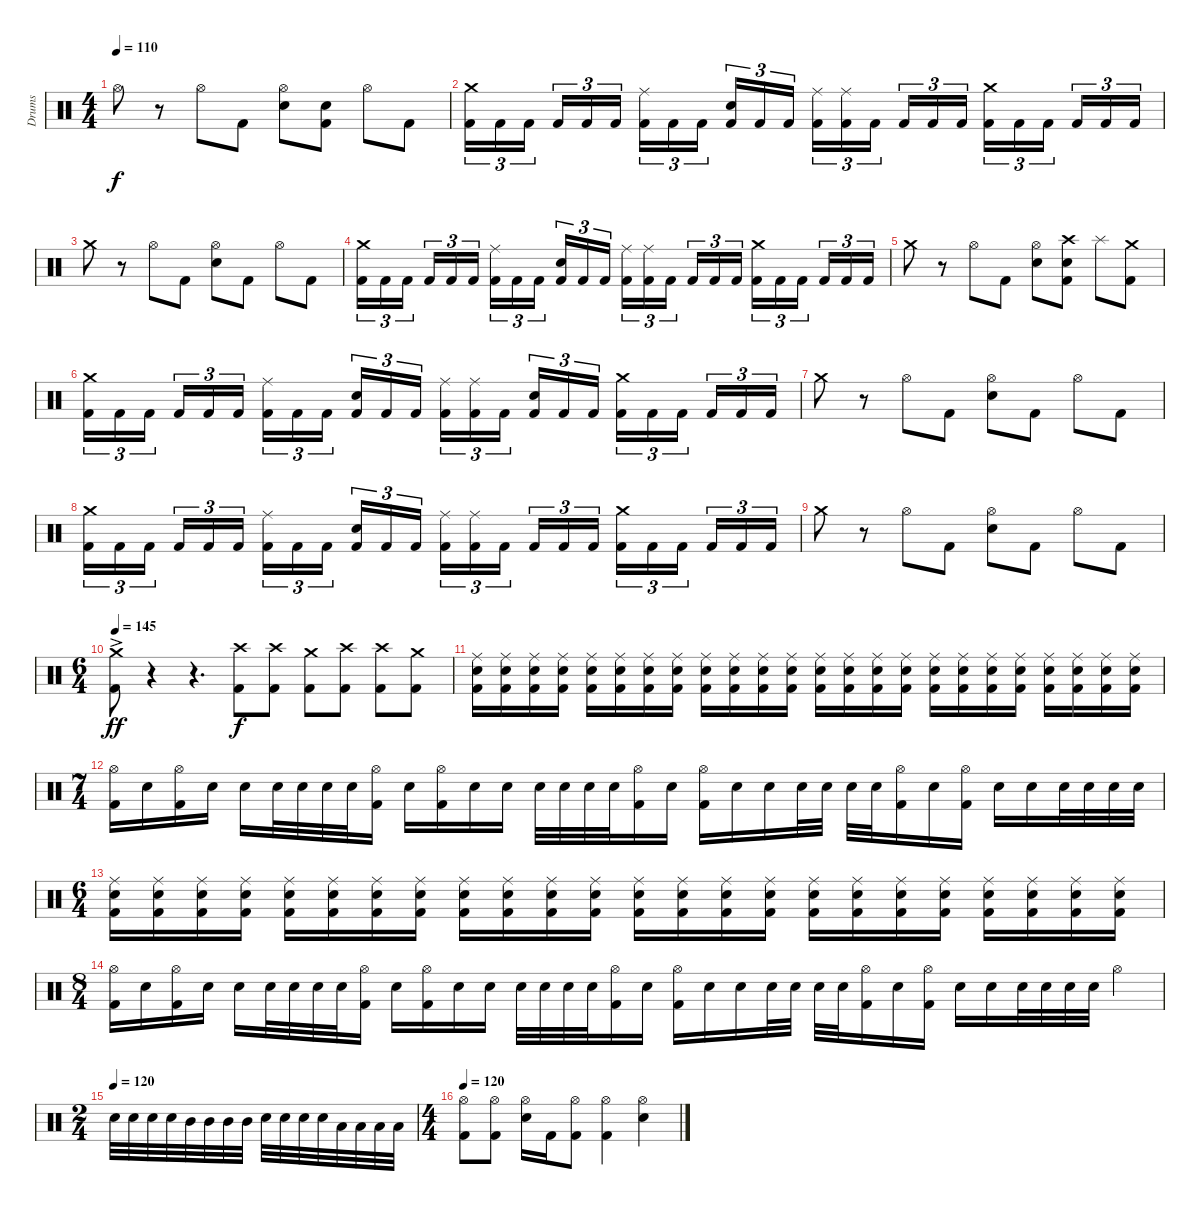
\track ("Drums" "Drums") {instrument percussion}
\staff {score}
\articulation defaults
\ts (4 4)
\tempo 110
\clef neutral
\ks c "Hi-Hat (open)".8{dy f}
r.8 "Hi-Hat (open)".8 "Kick (hit) 2".8 ("Hi-Hat (open)" "Electric Snare (hit)").8 ("Electric Snare (hit)" "Kick (hit) 2").8 "Hi-Hat (open)".8 "Kick (hit) 2".8 |
("Crash medium (hit)" "Kick (hit) 2").16{tu (3 2)} "Kick (hit) 2".16{tu (3 2)} "Kick (hit) 2".16{tu (3 2) beam splitsecondary} "Kick (hit) 2".16{tu (3 2)} "Kick (hit) 2".16{tu (3 2)} "Kick (hit) 2".16{tu (3 2)} ("Ride (middle)" "Kick (hit) 2").16{tu (3 2)} "Kick (hit) 2".16{tu (3 2)} "Kick (hit) 2".16{tu (3 2) beam splitsecondary} ("Electric Snare (hit)" "Kick (hit) 2").16{tu (3 2)} "Kick (hit) 2".16{tu (3 2)} "Kick (hit) 2".16{tu (3 2)} ("Ride (middle)" "Kick (hit) 2").16{tu (3 2)} ("Ride (middle)" "Kick (hit) 2").16{tu (3 2)} "Kick (hit) 2".16{tu (3 2) beam splitsecondary} "Kick (hit) 2".16{tu (3 2)} "Kick (hit) 2".16{tu (3 2)} "Kick (hit) 2".16{tu (3 2)} ("Crash medium (hit)" "Kick (hit) 2").16{tu (3 2)} "Kick (hit) 2".16{tu (3 2)} "Kick (hit) 2".16{tu (3 2) beam splitsecondary} "Kick (hit) 2".16{tu (3 2)} "Kick (hit) 2".16{tu (3 2)} "Kick (hit) 2".16{tu (3 2)} |
"Crash medium (hit)".8 r.8 "Hi-Hat (open)".8 "Kick (hit) 2".8 ("Hi-Hat (open)" "Electric Snare (hit)").8 "Kick (hit) 2".8 "Hi-Hat (open)".8 "Kick (hit) 2".8 |
("Crash medium (hit)" "Kick (hit) 2").16{tu (3 2)} "Kick (hit) 2".16{tu (3 2)} "Kick (hit) 2".16{tu (3 2) beam splitsecondary} "Kick (hit) 2".16{tu (3 2)} "Kick (hit) 2".16{tu (3 2)} "Kick (hit) 2".16{tu (3 2)} ("Ride (middle)" "Kick (hit) 2").16{tu (3 2)} "Kick (hit) 2".16{tu (3 2)} "Kick (hit) 2".16{tu (3 2) beam splitsecondary} ("Electric Snare (hit)" "Kick (hit) 2").16{tu (3 2)} "Kick (hit) 2".16{tu (3 2)} "Kick (hit) 2".16{tu (3 2)} ("Ride (middle)" "Kick (hit) 2").16{tu (3 2)} ("Ride (middle)" "Kick (hit) 2").16{tu (3 2)} "Kick (hit) 2".16{tu (3 2) beam splitsecondary} "Kick (hit) 2".16{tu (3 2)} "Kick (hit) 2".16{tu (3 2)} "Kick (hit) 2".16{tu (3 2)} ("Crash medium (hit)" "Kick (hit) 2").16{tu (3 2)} "Kick (hit) 2".16{tu (3 2)} "Kick (hit) 2".16{tu (3 2) beam splitsecondary} "Kick (hit) 2".16{tu (3 2)} "Kick (hit) 2".16{tu (3 2)} "Kick (hit) 2".16{tu (3 2)} |
"Crash medium (hit)".8 r.8 "Hi-Hat (open)".8 "Kick (hit) 2".8 ("Hi-Hat (open)" "Electric Snare (hit)").8 ("Crash high (hit)" "Electric Snare (hit)" "Kick (hit) 2").8 "Splash (hit)".8 ("Crash medium (hit)" "Kick (hit) 2").8 |
("Crash medium (hit)" "Kick (hit) 2").16{tu (3 2)} "Kick (hit) 2".16{tu (3 2)} "Kick (hit) 2".16{tu (3 2) beam splitsecondary} "Kick (hit) 2".16{tu (3 2)} "Kick (hit) 2".16{tu (3 2)} "Kick (hit) 2".16{tu (3 2)} ("Ride (middle)" "Kick (hit) 2").16{tu (3 2)} "Kick (hit) 2".16{tu (3 2)} "Kick (hit) 2".16{tu (3 2) beam splitsecondary} ("Electric Snare (hit)" "Kick (hit) 2").16{tu (3 2)} "Kick (hit) 2".16{tu (3 2)} "Kick (hit) 2".16{tu (3 2)} ("Ride (middle)" "Kick (hit) 2").16{tu (3 2)} ("Ride (middle)" "Kick (hit) 2").16{tu (3 2)} "Kick (hit) 2".16{tu (3 2) beam splitsecondary} ("Electric Snare (hit)" "Kick (hit) 2").16{tu (3 2)} "Kick (hit) 2".16{tu (3 2)} "Kick (hit) 2".16{tu (3 2)} ("Crash medium (hit)" "Kick (hit) 2").16{tu (3 2)} "Kick (hit) 2".16{tu (3 2)} "Kick (hit) 2".16{tu (3 2) beam splitsecondary} "Kick (hit) 2".16{tu (3 2)} "Kick (hit) 2".16{tu (3 2)} "Kick (hit) 2".16{tu (3 2)} |
"Crash medium (hit)".8 r.8 "Hi-Hat (open)".8 "Kick (hit) 2".8 ("Hi-Hat (open)" "Electric Snare (hit)").8 "Kick (hit) 2".8 "Hi-Hat (open)".8 "Kick (hit) 2".8 |
("Crash medium (hit)" "Kick (hit) 2").16{tu (3 2)} "Kick (hit) 2".16{tu (3 2)} "Kick (hit) 2".16{tu (3 2) beam splitsecondary} "Kick (hit) 2".16{tu (3 2)} "Kick (hit) 2".16{tu (3 2)} "Kick (hit) 2".16{tu (3 2)} ("Ride (middle)" "Kick (hit) 2").16{tu (3 2)} "Kick (hit) 2".16{tu (3 2)} "Kick (hit) 2".16{tu (3 2) beam splitsecondary} ("Electric Snare (hit)" "Kick (hit) 2").16{tu (3 2)} "Kick (hit) 2".16{tu (3 2)} "Kick (hit) 2".16{tu (3 2)} ("Ride (middle)" "Kick (hit) 2").16{tu (3 2)} ("Ride (middle)" "Kick (hit) 2").16{tu (3 2)} "Kick (hit) 2".16{tu (3 2) beam splitsecondary} "Kick (hit) 2".16{tu (3 2)} "Kick (hit) 2".16{tu (3 2)} "Kick (hit) 2".16{tu (3 2)} ("Crash medium (hit)" "Kick (hit) 2").16{tu (3 2)} "Kick (hit) 2".16{tu (3 2)} "Kick (hit) 2".16{tu (3 2) beam splitsecondary} "Kick (hit) 2".16{tu (3 2)} "Kick (hit) 2".16{tu (3 2)} "Kick (hit) 2".16{tu (3 2)} |
"Crash medium (hit)".8 r.8 "Hi-Hat (open)".8 "Kick (hit) 2".8 ("Hi-Hat (open)" "Electric Snare (hit)").8 "Kick (hit) 2".8 "Hi-Hat (open)".8 "Kick (hit) 2".8 |
\ts (6 4)
\tempo 145
("Crash medium (hit)"{ac} "Kick (hit) 2").8{dy ff} r.4 r.4{d} ("Crash high (hit)" "Kick (hit) 2").8{dy f} ("Crash high (hit)" "Kick (hit) 2").8 ("Crash medium (hit)" "Kick (hit) 2").8 ("Crash high (hit)" "Kick (hit) 2").8 ("Crash high (hit)" "Kick (hit) 2").8 ("Crash medium (hit)" "Kick (hit) 2").8 |
("Ride (middle)" "Electric Snare (hit)" "Kick (hit) 2").16 ("Ride (middle)" "Electric Snare (hit)" "Kick (hit) 2").16 ("Ride (middle)" "Electric Snare (hit)" "Kick (hit) 2").16 ("Ride (middle)" "Electric Snare (hit)" "Kick (hit) 2").16 ("Ride (middle)" "Electric Snare (hit)" "Kick (hit) 2").16 ("Ride (middle)" "Electric Snare (hit)" "Kick (hit) 2").16 ("Ride (middle)" "Electric Snare (hit)" "Kick (hit) 2").16 ("Ride (middle)" "Electric Snare (hit)" "Kick (hit) 2").16 ("Ride (middle)" "Electric Snare (hit)" "Kick (hit) 2").16 ("Ride (middle)" "Electric Snare (hit)" "Kick (hit) 2").16 ("Ride (middle)" "Electric Snare (hit)" "Kick (hit) 2").16 ("Ride (middle)" "Electric Snare (hit)" "Kick (hit) 2").16 ("Ride (middle)" "Electric Snare (hit)" "Kick (hit) 2").16 ("Ride (middle)" "Electric Snare (hit)" "Kick (hit) 2").16 ("Ride (middle)" "Electric Snare (hit)" "Kick (hit) 2").16 ("Ride (middle)" "Electric Snare (hit)" "Kick (hit) 2").16 ("Ride (middle)" "Electric Snare (hit)" "Kick (hit) 2").16 ("Ride (middle)" "Electric Snare (hit)" "Kick (hit) 2").16 ("Ride (middle)" "Electric Snare (hit)" "Kick (hit) 2").16 ("Ride (middle)" "Electric Snare (hit)" "Kick (hit) 2").16 ("Ride (middle)" "Electric Snare (hit)" "Kick (hit) 2").16 ("Ride (middle)" "Electric Snare (hit)" "Kick (hit) 2").16 ("Ride (middle)" "Electric Snare (hit)" "Kick (hit) 2").16 ("Ride (middle)" "Electric Snare (hit)" "Kick (hit) 2").16 |
\ts (7 4)
("Hi-Hat (open)" "Kick (hit) 2").16 "Electric Snare (hit)".16 ("Hi-Hat (open)" "Kick (hit) 2").16 "Electric Snare (hit)".16 "Electric Snare (hit)".16 "Electric Snare (hit)".32 "Electric Snare (hit)".32 "Electric Snare (hit)".32 "Electric Snare (hit)".32 ("Hi-Hat (open)" "Kick (hit) 2").16 "Electric Snare (hit)".16 ("Hi-Hat (open)" "Kick (hit) 2").16 "Electric Snare (hit)".16 "Electric Snare (hit)".16 "Electric Snare (hit)".32 "Electric Snare (hit)".32 "Electric Snare (hit)".32 "Electric Snare (hit)".32 ("Hi-Hat (open)" "Kick (hit) 2").16 "Electric Snare (hit)".16 ("Hi-Hat (open)" "Kick (hit) 2").16 "Electric Snare (hit)".16 "Electric Snare (hit)".16 "Electric Snare (hit)".32 "Electric Snare (hit)".32 "Electric Snare (hit)".32 "Electric Snare (hit)".32 ("Hi-Hat (open)" "Kick (hit) 2").16 "Electric Snare (hit)".16 ("Hi-Hat (open)" "Kick (hit) 2").16 "Electric Snare (hit)".16 "Electric Snare (hit)".16 "Electric Snare (hit)".32 "Electric Snare (hit)".32 "Electric Snare (hit)".32 "Electric Snare (hit)".32 |
\ts (6 4)
("Ride (middle)" "Electric Snare (hit)" "Kick (hit) 2").16 ("Ride (middle)" "Electric Snare (hit)" "Kick (hit) 2").16 ("Ride (middle)" "Electric Snare (hit)" "Kick (hit) 2").16 ("Ride (middle)" "Electric Snare (hit)" "Kick (hit) 2").16 ("Ride (middle)" "Electric Snare (hit)" "Kick (hit) 2").16 ("Ride (middle)" "Electric Snare (hit)" "Kick (hit) 2").16 ("Ride (middle)" "Electric Snare (hit)" "Kick (hit) 2").16 ("Ride (middle)" "Electric Snare (hit)" "Kick (hit) 2").16 ("Ride (middle)" "Electric Snare (hit)" "Kick (hit) 2").16 ("Ride (middle)" "Electric Snare (hit)" "Kick (hit) 2").16 ("Ride (middle)" "Electric Snare (hit)" "Kick (hit) 2").16 ("Ride (middle)" "Electric Snare (hit)" "Kick (hit) 2").16 ("Ride (middle)" "Electric Snare (hit)" "Kick (hit) 2").16 ("Ride (middle)" "Electric Snare (hit)" "Kick (hit) 2").16 ("Ride (middle)" "Electric Snare (hit)" "Kick (hit) 2").16 ("Ride (middle)" "Electric Snare (hit)" "Kick (hit) 2").16 ("Ride (middle)" "Electric Snare (hit)" "Kick (hit) 2").16 ("Ride (middle)" "Electric Snare (hit)" "Kick (hit) 2").16 ("Ride (middle)" "Electric Snare (hit)" "Kick (hit) 2").16 ("Ride (middle)" "Electric Snare (hit)" "Kick (hit) 2").16 ("Ride (middle)" "Electric Snare (hit)" "Kick (hit) 2").16 ("Ride (middle)" "Electric Snare (hit)" "Kick (hit) 2").16 ("Ride (middle)" "Electric Snare (hit)" "Kick (hit) 2").16 ("Ride (middle)" "Electric Snare (hit)" "Kick (hit) 2").16 |
\ts (8 4)
("Hi-Hat (open)" "Kick (hit) 2").16 "Electric Snare (hit)".16 ("Hi-Hat (open)" "Kick (hit) 2").16 "Electric Snare (hit)".16 "Electric Snare (hit)".16 "Electric Snare (hit)".32 "Electric Snare (hit)".32 "Electric Snare (hit)".32 "Electric Snare (hit)".32 ("Hi-Hat (open)" "Kick (hit) 2").16 "Electric Snare (hit)".16 ("Hi-Hat (open)" "Kick (hit) 2").16 "Electric Snare (hit)".16 "Electric Snare (hit)".16 "Electric Snare (hit)".32 "Electric Snare (hit)".32 "Electric Snare (hit)".32 "Electric Snare (hit)".32 ("Hi-Hat (open)" "Kick (hit) 2").16 "Electric Snare (hit)".16 ("Hi-Hat (open)" "Kick (hit) 2").16 "Electric Snare (hit)".16 "Electric Snare (hit)".16 "Electric Snare (hit)".32 "Electric Snare (hit)".32 "Electric Snare (hit)".32 "Electric Snare (hit)".32 ("Hi-Hat (open)" "Kick (hit) 2").16 "Electric Snare (hit)".16 ("Hi-Hat (open)" "Kick (hit) 2").16 "Electric Snare (hit)".16 "Electric Snare (hit)".16 "Electric Snare (hit)".32 "Electric Snare (hit)".32 "Electric Snare (hit)".32 "Electric Snare (hit)".32 "Hi-Hat (open)".4 |
\ts (2 4)
\tempo (120)
"Electric Snare (hit)".32 "Electric Snare (hit)".32 "Electric Snare (hit)".32 "Electric Snare (hit)".32 "Mid Tom (hit)".32 "Mid Tom (hit)".32 "Mid Tom (hit)".32 "Mid Tom (hit)".32 "Electric Snare (hit)".32 "Electric Snare (hit)".32 "Electric Snare (hit)".32 "Electric Snare (hit)".32 "Low Tom (hit)".32 "Low Tom (hit)".32 "Low Tom (hit)".32 "Low Tom (hit)".32 |
\ts (4 4)
\tempo 120
("Hi-Hat (open)" "Kick (hit) 2").8 ("Hi-Hat (open)" "Kick (hit) 2").8 ("Hi-Hat (open)" "Electric Snare (hit)").16 "Kick (hit) 2".16 ("Hi-Hat (open)" "Kick (hit) 2").8 ("Hi-Hat (open)" "Kick (hit) 2").4 ("Hi-Hat (open)" "Electric Snare (hit)").4
